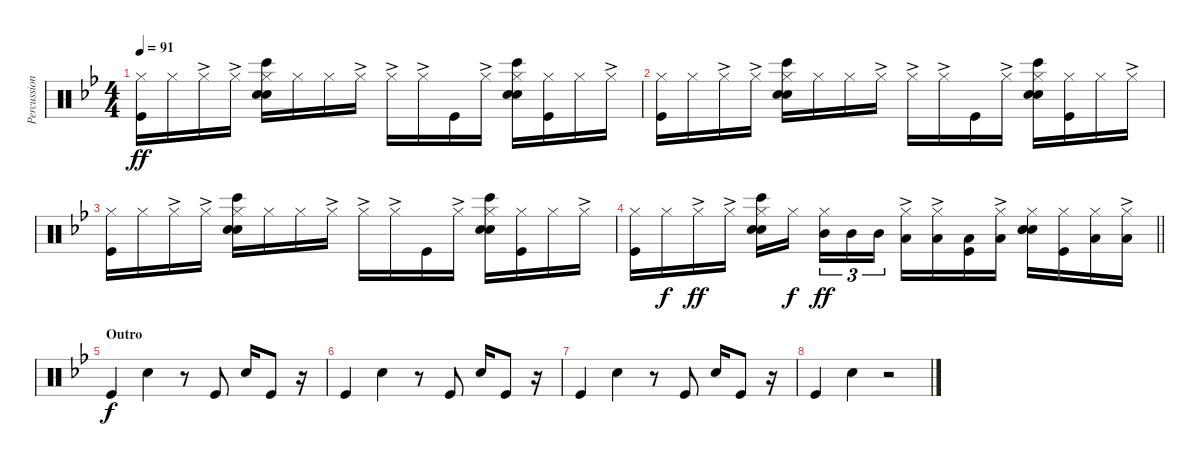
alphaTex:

\track ("Percussion" "Percussion") {instrument percussion}
\staff {score}
\articulation defaults
\ts (4 4)
\tempo 91
\clef neutral
\ks bb
("Hi-Hat (closed)" "Kick (hit)").16{dy ff} "Hi-Hat (closed)".16 "Hi-Hat (closed)"{ac}.16 "Hi-Hat (closed)"{ac}.16 ("Hi-Hat (closed)" "Snare (hit) 2" "Bongo High (hit)" "Hand Clap (hit)").16 "Hi-Hat (closed)".16 "Hi-Hat (closed)".16 "Hi-Hat (closed)"{ac}.16 "Hi-Hat (closed)"{ac}.16 "Hi-Hat (closed)"{ac}.16 "Kick (hit)".16 "Hi-Hat (closed)"{ac}.16 ("Hi-Hat (closed)" "Snare (hit) 2" "Bongo High (hit)" "Hand Clap (hit)").16 ("Hi-Hat (closed)" "Kick (hit)").16 "Hi-Hat (closed)".16 "Hi-Hat (closed)"{ac}.16 |
("Hi-Hat (closed)" "Kick (hit)").16 "Hi-Hat (closed)".16 "Hi-Hat (closed)"{ac}.16 "Hi-Hat (closed)"{ac}.16 ("Hi-Hat (closed)" "Snare (hit) 2" "Bongo High (hit)" "Hand Clap (hit)").16 "Hi-Hat (closed)".16 "Hi-Hat (closed)".16 "Hi-Hat (closed)"{ac}.16 "Hi-Hat (closed)"{ac}.16 "Hi-Hat (closed)"{ac}.16 "Kick (hit)".16 "Hi-Hat (closed)"{ac}.16 ("Hi-Hat (closed)" "Snare (hit) 2" "Bongo High (hit)" "Hand Clap (hit)").16 ("Hi-Hat (closed)" "Kick (hit)").16 "Hi-Hat (closed)".16 "Hi-Hat (closed)"{ac}.16 |
("Hi-Hat (closed)" "Kick (hit)").16 "Hi-Hat (closed)".16 "Hi-Hat (closed)"{ac}.16 "Hi-Hat (closed)"{ac}.16 ("Hi-Hat (closed)" "Snare (hit) 2" "Bongo High (hit)" "Hand Clap (hit)").16 "Hi-Hat (closed)".16 "Hi-Hat (closed)".16 "Hi-Hat (closed)"{ac}.16 "Hi-Hat (closed)"{ac}.16 "Hi-Hat (closed)"{ac}.16 "Kick (hit)".16 "Hi-Hat (closed)"{ac}.16 ("Hi-Hat (closed)" "Snare (hit) 2" "Bongo High (hit)" "Hand Clap (hit)").16 ("Hi-Hat (closed)" "Kick (hit)").16 "Hi-Hat (closed)".16 "Hi-Hat (closed)"{ac}.16 |
\barLineRight lightlight
("Hi-Hat (closed)" "Kick (hit)").16 "Hi-Hat (closed)".16{dy f} "Hi-Hat (closed)"{ac}.16{dy ff} "Hi-Hat (closed)"{ac}.16 ("Hi-Hat (closed)" "Snare (hit) 2" "Bongo High (hit)" "Hand Clap (hit)").16 "Hi-Hat (closed)".16{dy f beam splitsecondary} ("Hi-Hat (closed)" "Mid Tom (hit)").16{tu (3 2) dy ff} "Mid Tom (hit)".16{tu (3 2)} "Mid Tom (hit)".16{tu (3 2)} ("Hi-Hat (closed)"{ac} "Low Tom (hit)").16 ("Hi-Hat (closed)"{ac} "Low Tom (hit)").16 ("Kick (hit)" "Low Tom (hit)").16 ("Hi-Hat (closed)"{ac} "Low Tom (hit)").16 ("Hi-Hat (closed)" "Snare (hit) 2" "Hand Clap (hit)" "Hand Clap (hit)").16 ("Hi-Hat (closed)" "Kick (hit)").16 ("Hi-Hat (closed)" "Low Floor Tom (hit)").16 ("Hi-Hat (closed)"{ac} "Low Floor Tom (hit)").16 |
\section ("" "Outro")
"Kick (hit)".4{dy f} "Electric Snare (hit)".4 r.8 "Kick (hit)".8 "Electric Snare (hit)".16 "Kick (hit)".8 r.16 |
"Kick (hit)".4 "Electric Snare (hit)".4 r.8 "Kick (hit)".8 "Electric Snare (hit)".16 "Kick (hit)".8 r.16 |
"Kick (hit)".4 "Electric Snare (hit)".4 r.8 "Kick (hit)".8 "Electric Snare (hit)".16 "Kick (hit)".8 r.16 |
"Kick (hit)".4 "Electric Snare (hit)".4 r.2
